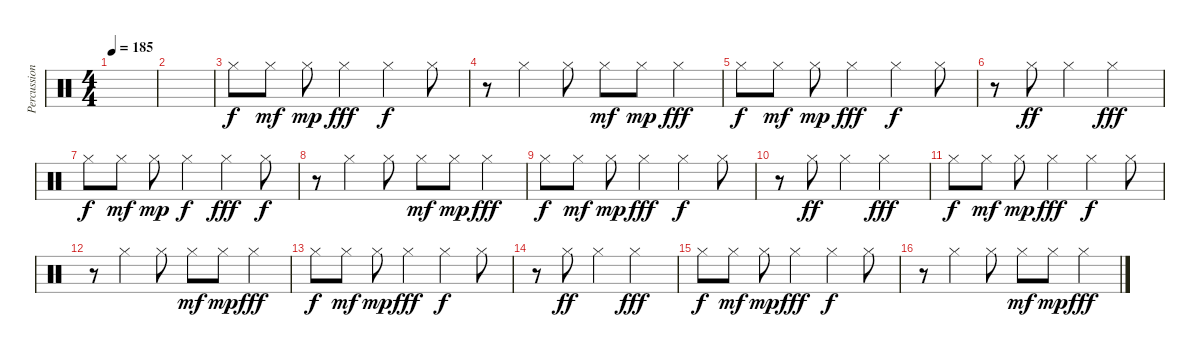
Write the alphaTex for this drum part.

\track ("Percussion" "Percussion") {solo instrument percussion}
\staff {score}
\articulation defaults
\ts (4 4)
\tempo 185
\clef neutral
\ks c
|
|
"Hi-Hat (closed)".8{dy f} "Hi-Hat (closed)".8{dy mf} "Hi-Hat (closed)".8{dy mp} "Hi-Hat (closed)".4{dy fff} "Hi-Hat (closed)".4{dy f} "Hi-Hat (closed)".8 |
r.8 "Hi-Hat (closed)".4 "Hi-Hat (closed)".8 "Hi-Hat (closed)".8{dy mf} "Hi-Hat (closed)".8{dy mp} "Hi-Hat (closed)".4{dy fff} |
"Hi-Hat (closed)".8{dy f} "Hi-Hat (closed)".8{dy mf} "Hi-Hat (closed)".8{dy mp} "Hi-Hat (closed)".4{dy fff} "Hi-Hat (closed)".4{dy f} "Hi-Hat (closed)".8 |
r.8 "Hi-Hat (closed)".8{dy ff} "Hi-Hat (closed)".4 "Hi-Hat (closed)".2{dy fff} |
"Hi-Hat (closed)".8{dy f} "Hi-Hat (closed)".8{dy mf} "Hi-Hat (closed)".8{dy mp} "Hi-Hat (closed)".4{dy f} "Hi-Hat (closed)".4{dy fff} "Hi-Hat (closed)".8{dy f} |
r.8 "Hi-Hat (closed)".4 "Hi-Hat (closed)".8 "Hi-Hat (closed)".8{dy mf} "Hi-Hat (closed)".8{dy mp} "Hi-Hat (closed)".4{dy fff} |
"Hi-Hat (closed)".8{dy f} "Hi-Hat (closed)".8{dy mf} "Hi-Hat (closed)".8{dy mp} "Hi-Hat (closed)".4{dy fff} "Hi-Hat (closed)".4{dy f} "Hi-Hat (closed)".8 |
r.8 "Hi-Hat (closed)".8{dy ff} "Hi-Hat (closed)".4 "Hi-Hat (closed)".2{dy fff} |
"Hi-Hat (closed)".8{dy f} "Hi-Hat (closed)".8{dy mf} "Hi-Hat (closed)".8{dy mp} "Hi-Hat (closed)".4{dy fff} "Hi-Hat (closed)".4{dy f} "Hi-Hat (closed)".8 |
r.8 "Hi-Hat (closed)".4 "Hi-Hat (closed)".8 "Hi-Hat (closed)".8{dy mf} "Hi-Hat (closed)".8{dy mp} "Hi-Hat (closed)".4{dy fff} |
"Hi-Hat (closed)".8{dy f} "Hi-Hat (closed)".8{dy mf} "Hi-Hat (closed)".8{dy mp} "Hi-Hat (closed)".4{dy fff} "Hi-Hat (closed)".4{dy f} "Hi-Hat (closed)".8 |
r.8 "Hi-Hat (closed)".8{dy ff} "Hi-Hat (closed)".4 "Hi-Hat (closed)".2{dy fff} |
"Hi-Hat (closed)".8{dy f} "Hi-Hat (closed)".8{dy mf} "Hi-Hat (closed)".8{dy mp} "Hi-Hat (closed)".4{dy fff} "Hi-Hat (closed)".4{dy f} "Hi-Hat (closed)".8 |
r.8 "Hi-Hat (closed)".4 "Hi-Hat (closed)".8 "Hi-Hat (closed)".8{dy mf} "Hi-Hat (closed)".8{dy mp} "Hi-Hat (closed)".4{dy fff}
